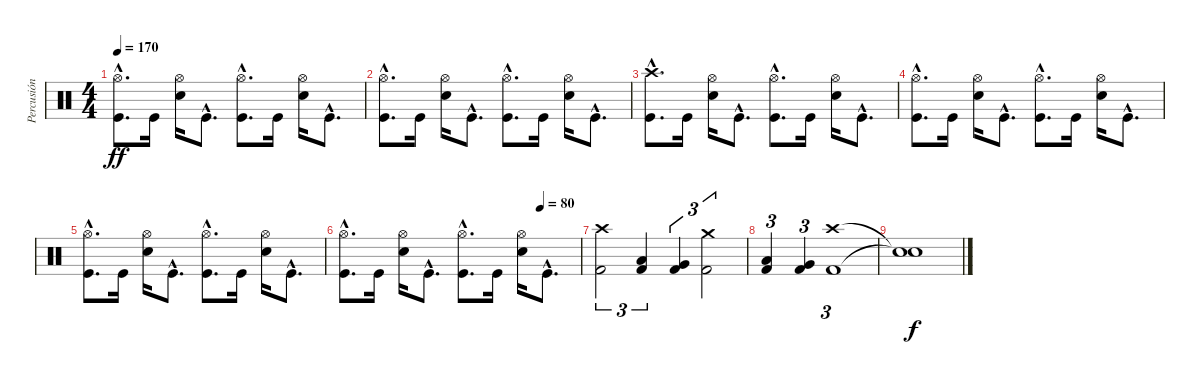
\track ("Percusión" "Percusión") {instrument percussion}
\staff {score}
\articulation defaults
\ts (4 4)
\tempo 170
\clef neutral
\ks c
("Hi-Hat (open)"{hac} "Kick (hit)"{hac}).8{d dy ff} "Kick (hit)".16 ("Hi-Hat (open)" "Snare (hit) 2").16 "Kick (hit)"{hac}.8{d} ("Hi-Hat (open)"{hac} "Kick (hit)"{hac}).8{d} "Kick (hit)".16 ("Hi-Hat (open)" "Snare (hit) 2").16 "Kick (hit)"{hac}.8{d} |
("Hi-Hat (open)"{hac} "Kick (hit)"{hac}).8{d} "Kick (hit)".16 ("Hi-Hat (open)" "Snare (hit) 2").16 "Kick (hit)"{hac}.8{d} ("Hi-Hat (open)"{hac} "Kick (hit)"{hac}).8{d} "Kick (hit)".16 ("Hi-Hat (open)" "Snare (hit) 2").16 "Kick (hit)"{hac}.8{d} |
("Crash high (hit)"{hac} "Kick (hit)"{hac}).8{d} "Kick (hit)".16 ("Hi-Hat (open)" "Snare (hit) 2").16 "Kick (hit)"{hac}.8{d} ("Hi-Hat (open)"{hac} "Kick (hit)"{hac}).8{d} "Kick (hit)".16 ("Hi-Hat (open)" "Snare (hit) 2").16 "Kick (hit)"{hac}.8{d} |
("Hi-Hat (open)"{hac} "Kick (hit)"{hac}).8{d} "Kick (hit)".16 ("Hi-Hat (open)" "Snare (hit) 2").16 "Kick (hit)"{hac}.8{d} ("Hi-Hat (open)"{hac} "Kick (hit)"{hac}).8{d} "Kick (hit)".16 ("Hi-Hat (open)" "Snare (hit) 2").16 "Kick (hit)"{hac}.8{d} |
("Hi-Hat (open)"{hac} "Kick (hit)"{hac}).8{d} "Kick (hit)".16 ("Hi-Hat (open)" "Snare (hit) 2").16 "Kick (hit)"{hac}.8{d} ("Hi-Hat (open)"{hac} "Kick (hit)"{hac}).8{d} "Kick (hit)".16 ("Hi-Hat (open)" "Snare (hit) 2").16 "Kick (hit)"{hac}.8{d} |
\tempo (80 0.8333333333333334)
("Hi-Hat (open)"{hac} "Kick (hit)"{hac}).8{d} "Kick (hit)".16 ("Hi-Hat (open)" "Snare (hit) 2").16 "Kick (hit)"{hac}.8{d} ("Hi-Hat (open)"{hac} "Kick (hit)"{hac}).8{d} "Kick (hit)".16 ("Hi-Hat (open)" "Snare (hit) 2").16 "Kick (hit)"{hac}.8{d} |
("Crash high (hit)" "Kick (hit) 2").2{tu (3 2)} ("Low Tom (hit)" "Kick (hit) 2").4{tu (3 2)} ("Very Low Tom (hit)" "Kick (hit) 2").4{tu (3 2)} ("Crash medium (hit)" "Kick (hit) 2").2{tu (3 2)} |
("Low Tom (hit)" "Kick (hit) 2").4{tu (3 2)} ("Very Low Tom (hit)" "Kick (hit) 2").4{tu (3 2)} ("Crash high (hit)" "Kick (hit) 2").1{tu (3 2)} |
("Snare (hit)"{t} "Snare (hit)"{t}).1{dy f}
